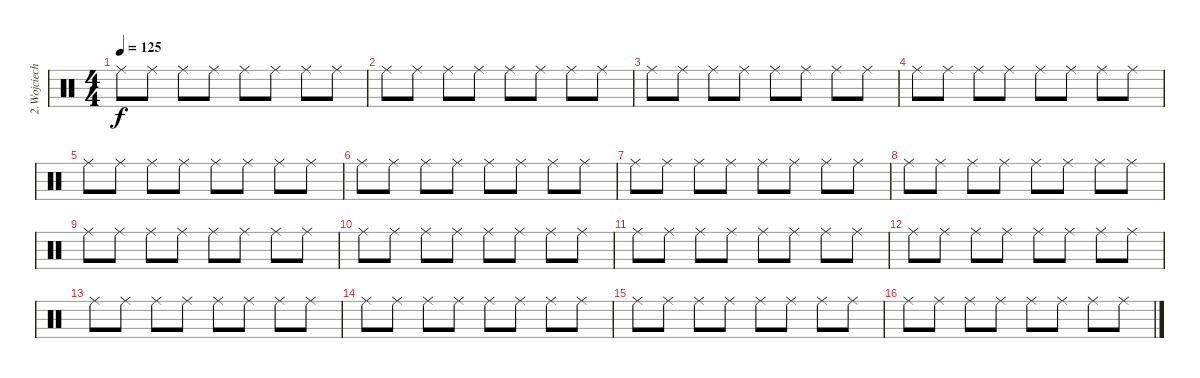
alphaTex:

\track ("2.Wojciech Kuderski (\"Lala\")" "2.Wojciech") {instrument percussion}
\staff {score}
\articulation defaults
\ts (4 4)
\tempo 125
\clef neutral
\ks c "Ride (middle)".8{dy f} "Ride (middle)".8 "Ride (middle)".8 "Ride (middle)".8 "Ride (middle)".8 "Ride (middle)".8 "Ride (middle)".8 "Ride (middle)".8
|
"Ride (middle)".8 "Ride (middle)".8 "Ride (middle)".8 "Ride (middle)".8 "Ride (middle)".8 "Ride (middle)".8 "Ride (middle)".8 "Ride (middle)".8 |
"Ride (middle)".8 "Ride (middle)".8 "Ride (middle)".8 "Ride (middle)".8 "Ride (middle)".8 "Ride (middle)".8 "Ride (middle)".8 "Ride (middle)".8 |
"Ride (middle)".8 "Ride (middle)".8 "Ride (middle)".8 "Ride (middle)".8 "Ride (middle)".8 "Ride (middle)".8 "Ride (middle)".8 "Ride (middle)".8 |
"Ride (middle)".8 "Ride (middle)".8 "Ride (middle)".8 "Ride (middle)".8 "Ride (middle)".8 "Ride (middle)".8 "Ride (middle)".8 "Ride (middle)".8 |
"Ride (middle)".8 "Ride (middle)".8 "Ride (middle)".8 "Ride (middle)".8 "Ride (middle)".8 "Ride (middle)".8 "Ride (middle)".8 "Ride (middle)".8 |
"Ride (middle)".8 "Ride (middle)".8 "Ride (middle)".8 "Ride (middle)".8 "Ride (middle)".8 "Ride (middle)".8 "Ride (middle)".8 "Ride (middle)".8 |
"Ride (middle)".8 "Ride (middle)".8 "Ride (middle)".8 "Ride (middle)".8 "Ride (middle)".8 "Ride (middle)".8 "Ride (middle)".8 "Ride (middle)".8 |
"Ride (middle)".8 "Ride (middle)".8 "Ride (middle)".8 "Ride (middle)".8 "Ride (middle)".8 "Ride (middle)".8 "Ride (middle)".8 "Ride (middle)".8 |
"Ride (middle)".8 "Ride (middle)".8 "Ride (middle)".8 "Ride (middle)".8 "Ride (middle)".8 "Ride (middle)".8 "Ride (middle)".8 "Ride (middle)".8 |
"Ride (middle)".8 "Ride (middle)".8 "Ride (middle)".8 "Ride (middle)".8 "Ride (middle)".8 "Ride (middle)".8 "Ride (middle)".8 "Ride (middle)".8 |
"Ride (middle)".8 "Ride (middle)".8 "Ride (middle)".8 "Ride (middle)".8 "Ride (middle)".8 "Ride (middle)".8 "Ride (middle)".8 "Ride (middle)".8 |
"Ride (middle)".8 "Ride (middle)".8 "Ride (middle)".8 "Ride (middle)".8 "Ride (middle)".8 "Ride (middle)".8 "Ride (middle)".8 "Ride (middle)".8 |
"Ride (middle)".8 "Ride (middle)".8 "Ride (middle)".8 "Ride (middle)".8 "Ride (middle)".8 "Ride (middle)".8 "Ride (middle)".8 "Ride (middle)".8 |
"Ride (middle)".8 "Ride (middle)".8 "Ride (middle)".8 "Ride (middle)".8 "Ride (middle)".8 "Ride (middle)".8 "Ride (middle)".8 "Ride (middle)".8 |
"Ride (middle)".8 "Ride (middle)".8 "Ride (middle)".8 "Ride (middle)".8 "Ride (middle)".8 "Ride (middle)".8 "Ride (middle)".8 "Ride (middle)".8
